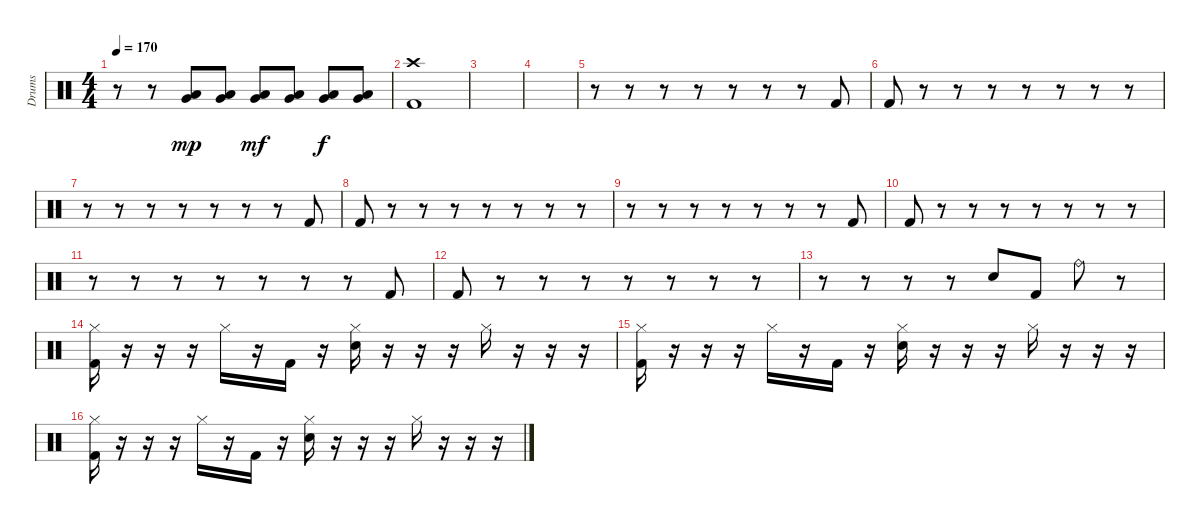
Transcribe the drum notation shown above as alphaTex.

\track ("Drums" "Drums") {instrument percussion}
\staff {score}
\articulation defaults
\ts (4 4)
\tempo 170
\clef neutral
\ks c
r.8{dy f} r.8 ("Very Low Tom (hit)" "Low Floor Tom (hit)").8{dy mp} ("Very Low Tom (hit)" "Low Floor Tom (hit)").8 ("Very Low Tom (hit)" "Low Floor Tom (hit)").8{dy mf} ("Very Low Tom (hit)" "Low Floor Tom (hit)").8 ("Very Low Tom (hit)" "Low Floor Tom (hit)").8{dy f} ("Very Low Tom (hit)" "Low Floor Tom (hit)").8 |
("Crash high (hit)" "Kick (hit) 2").1 |
|
|
r.8 r.8 r.8 r.8 r.8 r.8 r.8 "Kick (hit) 2".8 |
"Kick (hit) 2".8 r.8 r.8 r.8 r.8 r.8 r.8 r.8 |
r.8 r.8 r.8 r.8 r.8 r.8 r.8 "Kick (hit) 2".8 |
"Kick (hit) 2".8 r.8 r.8 r.8 r.8 r.8 r.8 r.8 |
r.8 r.8 r.8 r.8 r.8 r.8 r.8 "Kick (hit) 2".8 |
"Kick (hit) 2".8 r.8 r.8 r.8 r.8 r.8 r.8 r.8 |
r.8 r.8 r.8 r.8 r.8 r.8 r.8 "Kick (hit) 2".8 |
"Kick (hit) 2".8 r.8 r.8 r.8 r.8 r.8 r.8 r.8 |
r.8 r.8 r.8 r.8 "Electric Snare (hit)".8 "Kick (hit) 2".8 "Ride (bell)".8 r.8 |
("Hi-Hat (closed)" "Kick (hit) 2").16 r.16 r.16 r.16 "Hi-Hat (closed)".16 r.16 "Kick (hit) 2".16 r.16 ("Hi-Hat (closed)" "Electric Snare (hit)").16 r.16 r.16 r.16 "Hi-Hat (closed)".16 r.16 r.16 r.16 |
("Hi-Hat (closed)" "Kick (hit) 2").16 r.16 r.16 r.16 "Hi-Hat (closed)".16 r.16 "Kick (hit) 2".16 r.16 ("Hi-Hat (closed)" "Electric Snare (hit)").16 r.16 r.16 r.16 "Hi-Hat (closed)".16 r.16 r.16 r.16 |
("Hi-Hat (closed)" "Kick (hit) 2").16 r.16 r.16 r.16 "Hi-Hat (closed)".16 r.16 "Kick (hit) 2".16 r.16 ("Hi-Hat (closed)" "Electric Snare (hit)").16 r.16 r.16 r.16 "Hi-Hat (closed)".16 r.16 r.16 r.16
